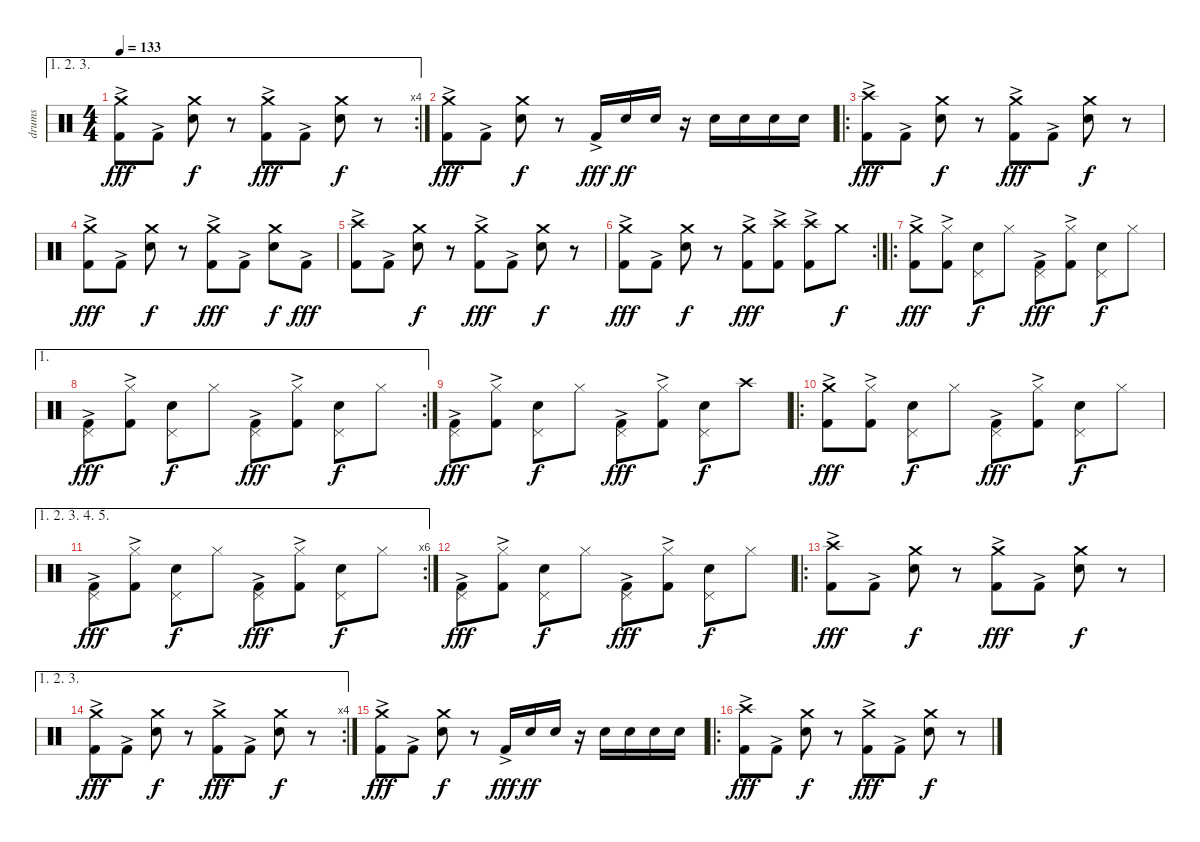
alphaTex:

\track ("drums" "drums") {instrument percussion}
\staff {score}
\articulation defaults
\ae (1 2 3)
\rc 4
\ts (4 4)
\tempo 133
\clef neutral
\ks c
("Kick (hit) 2"{ac} "Crash medium (hit)").8{dy fff} "Kick (hit) 2"{ac}.8 ("Crash medium (hit)" "Snare (hit) 2").8{dy f} r.8 ("Kick (hit) 2"{ac} "Crash medium (hit)").8{dy fff} "Kick (hit) 2"{ac}.8 ("Crash medium (hit)" "Snare (hit) 2").8{dy f} r.8 |
("Kick (hit) 2"{ac} "Crash medium (hit)").8{dy fff} "Kick (hit) 2"{ac}.8 ("Crash medium (hit)" "Snare (hit) 2").8{dy f} r.8 "Kick (hit) 2"{ac}.16{dy fff} "Snare (hit) 2".16{dy ff} "Snare (hit) 2".16 r.16 "Snare (hit) 2".16 "Snare (hit) 2".16 "Snare (hit) 2".16 "Snare (hit) 2".16 |
\ro
("Kick (hit) 2"{ac} "Crash high (hit)").8{dy fff} "Kick (hit) 2"{ac}.8 ("Crash medium (hit)" "Snare (hit) 2").8{dy f} r.8 ("Kick (hit) 2"{ac} "Crash medium (hit)").8{dy fff} "Kick (hit) 2"{ac}.8 ("Crash medium (hit)" "Snare (hit) 2").8{dy f} r.8 |
("Kick (hit) 2"{ac} "Crash medium (hit)").8{dy fff} "Kick (hit) 2"{ac}.8 ("Crash medium (hit)" "Snare (hit) 2").8{dy f} r.8 ("Kick (hit) 2"{ac} "Crash medium (hit)").8{dy fff} "Kick (hit) 2"{ac}.8 ("Crash medium (hit)" "Snare (hit) 2").8{dy f} "Kick (hit) 2"{ac}.8{dy fff} |
("Kick (hit) 2"{ac} "Crash high (hit)").8 "Kick (hit) 2"{ac}.8 ("Crash medium (hit)" "Snare (hit) 2").8{dy f} r.8 ("Kick (hit) 2"{ac} "Crash medium (hit)").8{dy fff} "Kick (hit) 2"{ac}.8 ("Crash medium (hit)" "Snare (hit) 2").8{dy f} r.8 |
\rc 2
("Kick (hit) 2"{ac} "Crash medium (hit)").8{dy fff} "Kick (hit) 2"{ac}.8 ("Crash medium (hit)" "Snare (hit) 2").8{dy f} r.8 ("Kick (hit) 2"{ac} "Crash medium (hit)").8{dy fff} ("Kick (hit) 2"{ac} "Crash high (hit)").8 ("Kick (hit) 2"{ac} "Crash high (hit)").8 "Crash medium (hit)".8{dy f} |
\ro
("Kick (hit) 2"{ac} "Crash medium (hit)").8{dy fff} ("Kick (hit) 2"{ac} "Hi-Hat (closed)").8 ("Pedal Hi-Hat (hit)" "Snare (hit) 2").8{dy f} "Hi-Hat (closed)".8 ("Kick (hit) 2"{ac} "Pedal Hi-Hat (hit)").8{dy fff} ("Kick (hit) 2"{ac} "Hi-Hat (closed)").8 ("Pedal Hi-Hat (hit)" "Snare (hit) 2").8{dy f} "Hi-Hat (closed)".8 |
\ae 1
\rc 2
("Kick (hit) 2"{ac} "Pedal Hi-Hat (hit)").8{dy fff} ("Kick (hit) 2"{ac} "Hi-Hat (closed)").8 ("Pedal Hi-Hat (hit)" "Snare (hit) 2").8{dy f} "Hi-Hat (closed)".8 ("Kick (hit) 2"{ac} "Pedal Hi-Hat (hit)").8{dy fff} ("Kick (hit) 2"{ac} "Hi-Hat (closed)").8 ("Pedal Hi-Hat (hit)" "Snare (hit) 2").8{dy f} "Hi-Hat (closed)".8 |
("Kick (hit) 2"{ac} "Pedal Hi-Hat (hit)").8{dy fff} ("Kick (hit) 2"{ac} "Hi-Hat (closed)").8 ("Pedal Hi-Hat (hit)" "Snare (hit) 2").8{dy f} "Hi-Hat (closed)".8 ("Kick (hit) 2"{ac} "Pedal Hi-Hat (hit)").8{dy fff} ("Kick (hit) 2"{ac} "Hi-Hat (closed)").8 ("Pedal Hi-Hat (hit)" "Snare (hit) 2").8{dy f} "Crash high (hit)".8 |
\ro
("Kick (hit) 2"{ac} "Crash medium (hit)").8{dy fff} ("Kick (hit) 2"{ac} "Hi-Hat (closed)").8 ("Pedal Hi-Hat (hit)" "Snare (hit) 2").8{dy f} "Hi-Hat (closed)".8 ("Kick (hit) 2"{ac} "Pedal Hi-Hat (hit)").8{dy fff} ("Kick (hit) 2"{ac} "Hi-Hat (closed)").8 ("Pedal Hi-Hat (hit)" "Snare (hit) 2").8{dy f} "Hi-Hat (closed)".8 |
\ae (1 2 3 4 5)
\rc 6
("Kick (hit) 2"{ac} "Pedal Hi-Hat (hit)").8{dy fff} ("Kick (hit) 2"{ac} "Hi-Hat (closed)").8 ("Pedal Hi-Hat (hit)" "Snare (hit) 2").8{dy f} "Hi-Hat (closed)".8 ("Kick (hit) 2"{ac} "Pedal Hi-Hat (hit)").8{dy fff} ("Kick (hit) 2"{ac} "Hi-Hat (closed)").8 ("Pedal Hi-Hat (hit)" "Snare (hit) 2").8{dy f} "Hi-Hat (closed)".8 |
("Kick (hit) 2"{ac} "Pedal Hi-Hat (hit)").8{dy fff} ("Kick (hit) 2"{ac} "Hi-Hat (closed)").8 ("Pedal Hi-Hat (hit)" "Snare (hit) 2").8{dy f} "Hi-Hat (closed)".8 ("Kick (hit) 2"{ac} "Pedal Hi-Hat (hit)").8{dy fff} ("Kick (hit) 2"{ac} "Hi-Hat (closed)").8 ("Pedal Hi-Hat (hit)" "Snare (hit) 2").8{dy f} "Hi-Hat (closed)".8 |
\ro
("Kick (hit) 2"{ac} "Crash high (hit)").8{dy fff} "Kick (hit) 2"{ac}.8 ("Crash medium (hit)" "Snare (hit) 2").8{dy f} r.8 ("Kick (hit) 2"{ac} "Crash medium (hit)").8{dy fff} "Kick (hit) 2"{ac}.8 ("Crash medium (hit)" "Snare (hit) 2").8{dy f} r.8 |
\ae (1 2 3)
\rc 4
("Kick (hit) 2"{ac} "Crash medium (hit)").8{dy fff} "Kick (hit) 2"{ac}.8 ("Crash medium (hit)" "Snare (hit) 2").8{dy f} r.8 ("Kick (hit) 2"{ac} "Crash medium (hit)").8{dy fff} "Kick (hit) 2"{ac}.8 ("Crash medium (hit)" "Snare (hit) 2").8{dy f} r.8 |
("Kick (hit) 2"{ac} "Crash medium (hit)").8{dy fff} "Kick (hit) 2"{ac}.8 ("Crash medium (hit)" "Snare (hit) 2").8{dy f} r.8 "Kick (hit) 2"{ac}.16{dy fff} "Snare (hit) 2".16{dy ff} "Snare (hit) 2".16 r.16 "Snare (hit) 2".16 "Snare (hit) 2".16 "Snare (hit) 2".16 "Snare (hit) 2".16 |
\ro
("Kick (hit) 2"{ac} "Crash high (hit)").8{dy fff} "Kick (hit) 2"{ac}.8 ("Crash medium (hit)" "Snare (hit) 2").8{dy f} r.8 ("Kick (hit) 2"{ac} "Crash medium (hit)").8{dy fff} "Kick (hit) 2"{ac}.8 ("Crash medium (hit)" "Snare (hit) 2").8{dy f} r.8
